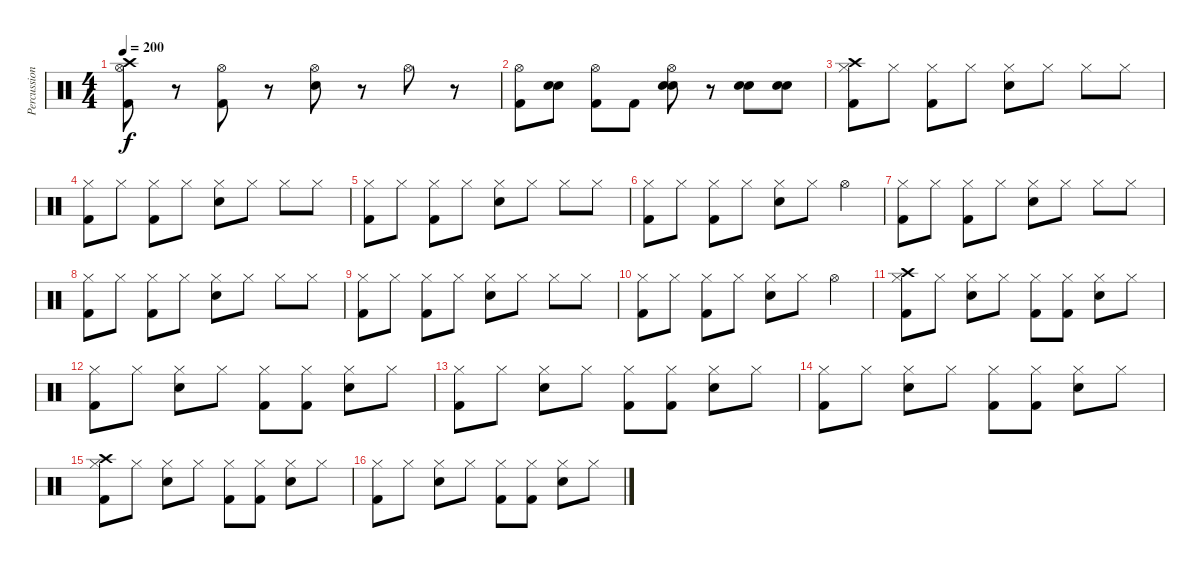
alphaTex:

\track ("Percussioni" "Percussion") {instrument percussion}
\staff {score}
\articulation defaults
\ts (4 4)
\tempo 200
\clef neutral
\ks c
("Crash high (hit)" "Kick (hit) 2" "Hi-Hat (open)").8{dy f} r.8 ("Kick (hit) 2" "Hi-Hat (open)").8 r.8 ("Snare (hit) 2" "Hi-Hat (open)").8 r.8 "Hi-Hat (open)".8 r.8 |
("Kick (hit) 2" "Hi-Hat (open)").8 ("Snare (hit) 2" "Snare (hit) 2").8 ("Kick (hit) 2" "Hi-Hat (open)").8 "Kick (hit) 2".8 ("Snare (hit) 2" "Snare (hit) 2" "Hi-Hat (open)").8 r.8 ("Snare (hit) 2" "Snare (hit) 2").8 ("Snare (hit) 2" "Snare (hit) 2").8 |
("Crash high (hit)" "Kick (hit) 2" "Hi-Hat (closed)").8 "Hi-Hat (closed)".8 ("Kick (hit) 2" "Hi-Hat (closed)").8 "Hi-Hat (closed)".8 ("Snare (hit) 2" "Hi-Hat (closed)").8 "Hi-Hat (closed)".8 "Hi-Hat (closed)".8 "Hi-Hat (closed)".8 |
("Kick (hit) 2" "Hi-Hat (closed)").8 "Hi-Hat (closed)".8 ("Kick (hit) 2" "Hi-Hat (closed)").8 "Hi-Hat (closed)".8 ("Snare (hit) 2" "Hi-Hat (closed)").8 "Hi-Hat (closed)".8 "Hi-Hat (closed)".8 "Hi-Hat (closed)".8 |
("Kick (hit) 2" "Hi-Hat (closed)").8 "Hi-Hat (closed)".8 ("Kick (hit) 2" "Hi-Hat (closed)").8 "Hi-Hat (closed)".8 ("Snare (hit) 2" "Hi-Hat (closed)").8 "Hi-Hat (closed)".8 "Hi-Hat (closed)".8 "Hi-Hat (closed)".8 |
("Kick (hit) 2" "Hi-Hat (closed)").8 "Hi-Hat (closed)".8 ("Kick (hit) 2" "Hi-Hat (closed)").8 "Hi-Hat (closed)".8 ("Snare (hit) 2" "Hi-Hat (closed)").8 "Hi-Hat (closed)".8 "Hi-Hat (open)".4 |
("Kick (hit) 2" "Hi-Hat (closed)").8 "Hi-Hat (closed)".8 ("Kick (hit) 2" "Hi-Hat (closed)").8 "Hi-Hat (closed)".8 ("Snare (hit) 2" "Hi-Hat (closed)").8 "Hi-Hat (closed)".8 "Hi-Hat (closed)".8 "Hi-Hat (closed)".8 |
("Kick (hit) 2" "Hi-Hat (closed)").8 "Hi-Hat (closed)".8 ("Kick (hit) 2" "Hi-Hat (closed)").8 "Hi-Hat (closed)".8 ("Snare (hit) 2" "Hi-Hat (closed)").8 "Hi-Hat (closed)".8 "Hi-Hat (closed)".8 "Hi-Hat (closed)".8 |
("Kick (hit) 2" "Hi-Hat (closed)").8 "Hi-Hat (closed)".8 ("Kick (hit) 2" "Hi-Hat (closed)").8 "Hi-Hat (closed)".8 ("Snare (hit) 2" "Hi-Hat (closed)").8 "Hi-Hat (closed)".8 "Hi-Hat (closed)".8 "Hi-Hat (closed)".8 |
("Kick (hit) 2" "Hi-Hat (closed)").8 "Hi-Hat (closed)".8 ("Kick (hit) 2" "Hi-Hat (closed)").8 "Hi-Hat (closed)".8 ("Snare (hit) 2" "Hi-Hat (closed)").8 "Hi-Hat (closed)".8 "Hi-Hat (open)".4 |
("Crash high (hit)" "Kick (hit) 2" "Hi-Hat (closed)").8 "Hi-Hat (closed)".8 ("Snare (hit) 2" "Hi-Hat (closed)").8 "Hi-Hat (closed)".8 ("Kick (hit) 2" "Hi-Hat (closed)").8 ("Kick (hit) 2" "Hi-Hat (closed)").8 ("Snare (hit) 2" "Hi-Hat (closed)").8 "Hi-Hat (closed)".8 |
("Kick (hit) 2" "Hi-Hat (closed)").8 "Hi-Hat (closed)".8 ("Snare (hit) 2" "Hi-Hat (closed)").8 "Hi-Hat (closed)".8 ("Kick (hit) 2" "Hi-Hat (closed)").8 ("Kick (hit) 2" "Hi-Hat (closed)").8 ("Snare (hit) 2" "Hi-Hat (closed)").8 "Hi-Hat (closed)".8 |
("Kick (hit) 2" "Hi-Hat (closed)").8 "Hi-Hat (closed)".8 ("Snare (hit) 2" "Hi-Hat (closed)").8 "Hi-Hat (closed)".8 ("Kick (hit) 2" "Hi-Hat (closed)").8 ("Kick (hit) 2" "Hi-Hat (closed)").8 ("Snare (hit) 2" "Hi-Hat (closed)").8 "Hi-Hat (closed)".8 |
("Kick (hit) 2" "Hi-Hat (closed)").8 "Hi-Hat (closed)".8 ("Snare (hit) 2" "Hi-Hat (closed)").8 "Hi-Hat (closed)".8 ("Kick (hit) 2" "Hi-Hat (closed)").8 ("Kick (hit) 2" "Hi-Hat (closed)").8 ("Snare (hit) 2" "Hi-Hat (closed)").8 "Hi-Hat (closed)".8 |
("Crash high (hit)" "Kick (hit) 2" "Hi-Hat (closed)").8 "Hi-Hat (closed)".8 ("Snare (hit) 2" "Hi-Hat (closed)").8 "Hi-Hat (closed)".8 ("Kick (hit) 2" "Hi-Hat (closed)").8 ("Kick (hit) 2" "Hi-Hat (closed)").8 ("Snare (hit) 2" "Hi-Hat (closed)").8 "Hi-Hat (closed)".8 |
("Kick (hit) 2" "Hi-Hat (closed)").8 "Hi-Hat (closed)".8 ("Snare (hit) 2" "Hi-Hat (closed)").8 "Hi-Hat (closed)".8 ("Kick (hit) 2" "Hi-Hat (closed)").8 ("Kick (hit) 2" "Hi-Hat (closed)").8 ("Snare (hit) 2" "Hi-Hat (closed)").8 "Hi-Hat (closed)".8
